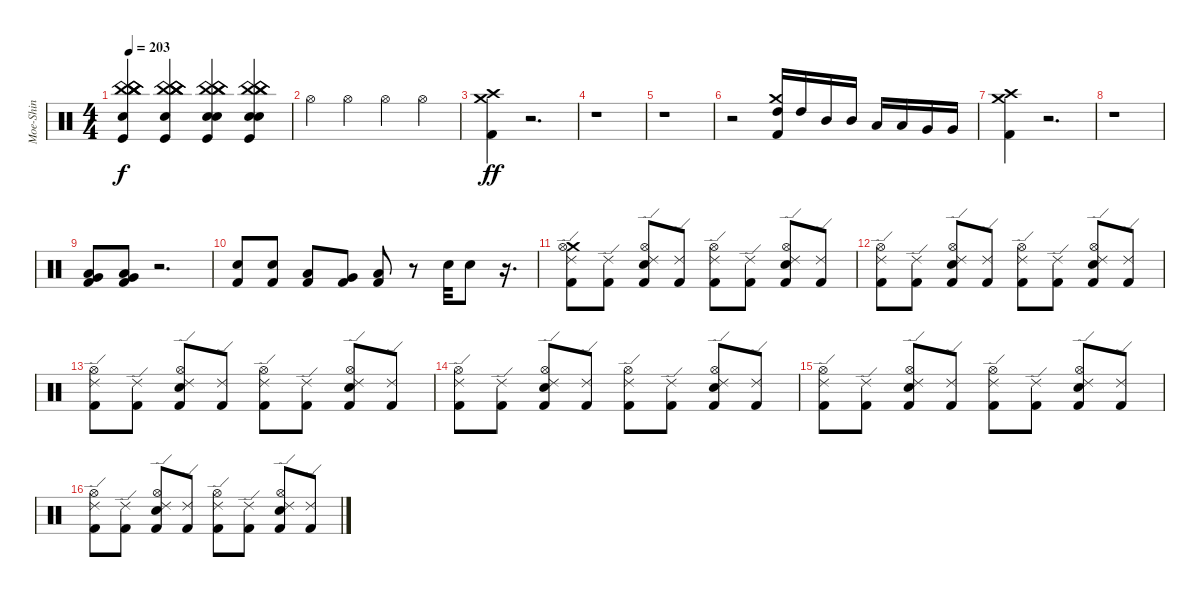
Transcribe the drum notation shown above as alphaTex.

\track ("Moe-Shin" "Moe-Shin") {instrument percussion}
\staff {score}
\articulation defaults
\ts (4 4)
\tempo 203
\clef neutral
\ks c
("Kick (hit)" "China (hit)" "Snare (hit) 2" "China (hit)" "China (hit)" "China (hit)").4{dy f} ("Kick (hit)" "China (hit)" "Snare (hit) 2" "China (hit)" "China (hit)" "China (hit)").4 ("Kick (hit)" "China (hit)" "Snare (hit) 2" "China (hit)" "China (hit)" "Snare (hit)").4 ("Kick (hit)" "China (hit)" "Snare (hit) 2" "Snare (hit)" "China (hit)" "China (hit)").4 |
"Hi-Hat (open)".4{volume 3} "Hi-Hat (open)".4 "Hi-Hat (open)".4 "Hi-Hat (open)".4 |
("Kick (hit) 2" "Crash high (hit)" "Crash medium (hit)").4{dy ff volume 14} r.2{d} |
r.1 |
r.1 |
r.2 ("Crash medium (hit)" "Kick (hit) 2" "High Tom (hit)").16 "High Tom (hit)".16 "Mid Tom (hit)".16 "Mid Tom (hit)".16 "Low Tom (hit)".16 "Low Tom (hit)".16 "Very Low Tom (hit)".16 "Very Low Tom (hit)".16 |
("Crash high (hit)" "Crash medium (hit)" "Kick (hit) 2").4 r.2{d} |
r.1 |
("Low Floor Tom (hit)" "Kick (hit) 2" "Very Low Tom (hit)").8 ("Very Low Tom (hit)" "Low Floor Tom (hit)" "Kick (hit) 2").8 r.2{d} |
("Kick (hit) 2" "Snare (hit) 2").8 ("Snare (hit) 2" "Kick (hit) 2").8 ("Kick (hit) 2" "Low Tom (hit)").8 ("Very Low Tom (hit)" "Kick (hit) 2").8 ("Kick (hit) 2" "Low Floor Tom (hit)").8 r.8 "Snare (hit) 2".32 "Snare (hit) 2".8 r.16{d} |
("Crash medium (hit)" "Ride (edge) 2" "Hi-Hat (open)" "Kick (hit) 2").8 ("Kick (hit) 2" "Ride (edge) 2").8 ("Kick (hit) 2" "Ride (edge) 2" "Hi-Hat (open)" "Snare (hit) 2").8 ("Ride (edge) 2" "Kick (hit) 2").8 ("Hi-Hat (open)" "Ride (edge) 2" "Kick (hit) 2").8 ("Kick (hit) 2" "Ride (edge) 2").8 ("Snare (hit) 2" "Ride (edge) 2" "Hi-Hat (open)" "Kick (hit) 2").8 ("Ride (edge) 2" "Kick (hit) 2").8 |
("Ride (edge) 2" "Kick (hit) 2" "Hi-Hat (open)").8 ("Kick (hit) 2" "Ride (edge) 2").8 ("Snare (hit) 2" "Ride (edge) 2" "Kick (hit) 2" "Hi-Hat (open)").8 ("Ride (edge) 2" "Kick (hit) 2").8 ("Ride (edge) 2" "Hi-Hat (open)" "Kick (hit) 2").8 ("Kick (hit) 2" "Ride (edge) 2").8 ("Ride (edge) 2" "Snare (hit) 2" "Kick (hit) 2" "Hi-Hat (open)").8 ("Kick (hit) 2" "Ride (edge) 2").8 |
("Kick (hit) 2" "Hi-Hat (open)" "Ride (edge) 2").8 ("Kick (hit) 2" "Ride (edge) 2").8 ("Snare (hit) 2" "Hi-Hat (open)" "Kick (hit) 2" "Ride (edge) 2").8 ("Kick (hit) 2" "Ride (edge) 2").8 ("Ride (edge) 2" "Kick (hit) 2" "Hi-Hat (open)").8 ("Ride (edge) 2" "Kick (hit) 2").8 ("Hi-Hat (open)" "Snare (hit) 2" "Ride (edge) 2" "Kick (hit) 2").8 ("Ride (edge) 2" "Kick (hit) 2").8 |
("Hi-Hat (open)" "Kick (hit) 2" "Ride (edge) 2").8 ("Ride (edge) 2" "Kick (hit) 2").8 ("Kick (hit) 2" "Hi-Hat (open)" "Snare (hit) 2" "Ride (edge) 2").8 ("Ride (edge) 2" "Kick (hit) 2").8 ("Kick (hit) 2" "Hi-Hat (open)" "Ride (edge) 2").8 ("Ride (edge) 2" "Kick (hit) 2").8 ("Hi-Hat (open)" "Snare (hit) 2" "Kick (hit) 2" "Ride (edge) 2").8 ("Ride (edge) 2" "Kick (hit) 2").8 |
("Hi-Hat (open)" "Ride (edge) 2" "Kick (hit) 2").8 ("Ride (edge) 2" "Kick (hit) 2").8 ("Snare (hit) 2" "Kick (hit) 2" "Hi-Hat (open)" "Ride (edge) 2").8 ("Kick (hit) 2" "Ride (edge) 2").8 ("Ride (edge) 2" "Kick (hit) 2" "Hi-Hat (open)").8 ("Kick (hit) 2" "Ride (edge) 2").8 ("Snare (hit) 2" "Hi-Hat (open)" "Ride (edge) 2" "Kick (hit) 2").8 ("Kick (hit) 2" "Ride (edge) 2").8 |
("Kick (hit) 2" "Ride (edge) 2" "Hi-Hat (open)").8 ("Ride (edge) 2" "Kick (hit) 2").8 ("Ride (edge) 2" "Snare (hit) 2" "Hi-Hat (open)" "Kick (hit) 2").8 ("Ride (edge) 2" "Kick (hit) 2").8 ("Ride (edge) 2" "Hi-Hat (open)" "Kick (hit) 2").8 ("Ride (edge) 2" "Kick (hit) 2").8 ("Hi-Hat (open)" "Snare (hit) 2" "Kick (hit) 2" "Ride (edge) 2").8 ("Kick (hit) 2" "Ride (edge) 2").8
